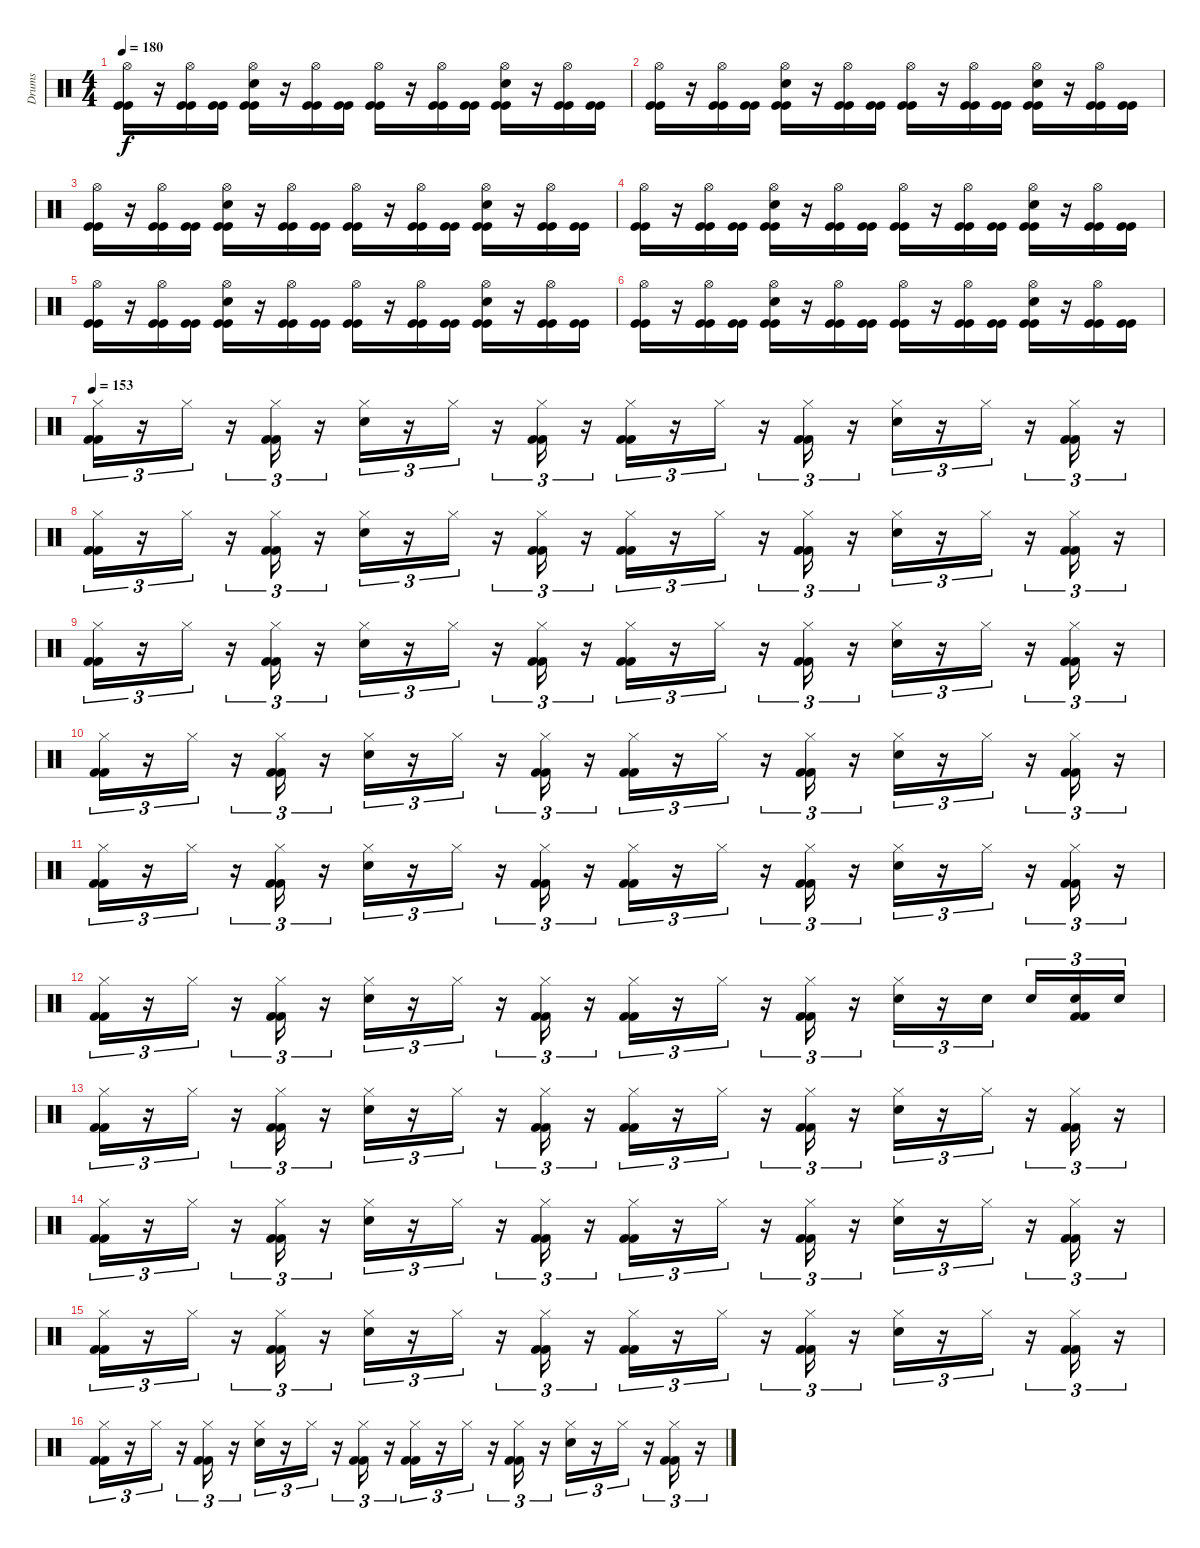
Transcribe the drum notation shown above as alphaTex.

\track ("Drums" "Drums") {instrument percussion}
\staff {score}
\articulation defaults
\ts (4 4)
\tempo 180
\clef neutral
\ks c
("Hi-Hat (open)" "Kick (hit)" "Kick (hit)").16{dy f} r.16 ("Hi-Hat (open)" "Kick (hit)" "Kick (hit)").16 ("Kick (hit)" "Kick (hit)").16 ("Snare (hit) 2" "Hi-Hat (open)" "Kick (hit)" "Kick (hit)").16 r.16 ("Hi-Hat (open)" "Kick (hit)" "Kick (hit)").16 ("Kick (hit)" "Kick (hit)").16 ("Hi-Hat (open)" "Kick (hit)" "Kick (hit)").16 r.16 ("Hi-Hat (open)" "Kick (hit)" "Kick (hit)").16 ("Kick (hit)" "Kick (hit)").16 ("Snare (hit) 2" "Hi-Hat (open)" "Kick (hit)" "Kick (hit)").16 r.16 ("Hi-Hat (open)" "Kick (hit)" "Kick (hit)").16 ("Kick (hit)" "Kick (hit)").16 |
("Hi-Hat (open)" "Kick (hit)" "Kick (hit)").16 r.16 ("Hi-Hat (open)" "Kick (hit)" "Kick (hit)").16 ("Kick (hit)" "Kick (hit)").16 ("Snare (hit) 2" "Hi-Hat (open)" "Kick (hit)" "Kick (hit)").16 r.16 ("Hi-Hat (open)" "Kick (hit)" "Kick (hit)").16 ("Kick (hit)" "Kick (hit)").16 ("Hi-Hat (open)" "Kick (hit)" "Kick (hit)").16 r.16 ("Hi-Hat (open)" "Kick (hit)" "Kick (hit)").16 ("Kick (hit)" "Kick (hit)").16 ("Snare (hit) 2" "Hi-Hat (open)" "Kick (hit)" "Kick (hit)").16 r.16 ("Hi-Hat (open)" "Kick (hit)" "Kick (hit)").16 ("Kick (hit)" "Kick (hit)").16 |
("Hi-Hat (open)" "Kick (hit)" "Kick (hit)").16 r.16 ("Hi-Hat (open)" "Kick (hit)" "Kick (hit)").16 ("Kick (hit)" "Kick (hit)").16 ("Snare (hit) 2" "Hi-Hat (open)" "Kick (hit)" "Kick (hit)").16 r.16 ("Hi-Hat (open)" "Kick (hit)" "Kick (hit)").16 ("Kick (hit)" "Kick (hit)").16 ("Hi-Hat (open)" "Kick (hit)" "Kick (hit)").16 r.16 ("Hi-Hat (open)" "Kick (hit)" "Kick (hit)").16 ("Kick (hit)" "Kick (hit)").16 ("Snare (hit) 2" "Hi-Hat (open)" "Kick (hit)" "Kick (hit)").16 r.16 ("Hi-Hat (open)" "Kick (hit)" "Kick (hit)").16 ("Kick (hit)" "Kick (hit)").16 |
("Hi-Hat (open)" "Kick (hit)" "Kick (hit)").16 r.16 ("Hi-Hat (open)" "Kick (hit)" "Kick (hit)").16 ("Kick (hit)" "Kick (hit)").16 ("Snare (hit) 2" "Hi-Hat (open)" "Kick (hit)" "Kick (hit)").16 r.16 ("Hi-Hat (open)" "Kick (hit)" "Kick (hit)").16 ("Kick (hit)" "Kick (hit)").16 ("Hi-Hat (open)" "Kick (hit)" "Kick (hit)").16 r.16 ("Hi-Hat (open)" "Kick (hit)" "Kick (hit)").16 ("Kick (hit)" "Kick (hit)").16 ("Snare (hit) 2" "Hi-Hat (open)" "Kick (hit)" "Kick (hit)").16 r.16 ("Hi-Hat (open)" "Kick (hit)" "Kick (hit)").16 ("Kick (hit)" "Kick (hit)").16 |
("Hi-Hat (open)" "Kick (hit)" "Kick (hit)").16 r.16 ("Hi-Hat (open)" "Kick (hit)" "Kick (hit)").16 ("Kick (hit)" "Kick (hit)").16 ("Snare (hit) 2" "Hi-Hat (open)" "Kick (hit)" "Kick (hit)").16 r.16 ("Hi-Hat (open)" "Kick (hit)" "Kick (hit)").16 ("Kick (hit)" "Kick (hit)").16 ("Hi-Hat (open)" "Kick (hit)" "Kick (hit)").16 r.16 ("Hi-Hat (open)" "Kick (hit)" "Kick (hit)").16 ("Kick (hit)" "Kick (hit)").16 ("Snare (hit) 2" "Hi-Hat (open)" "Kick (hit)" "Kick (hit)").16 r.16 ("Hi-Hat (open)" "Kick (hit)" "Kick (hit)").16 ("Kick (hit)" "Kick (hit)").16 |
("Hi-Hat (open)" "Kick (hit)" "Kick (hit)").16 r.16 ("Hi-Hat (open)" "Kick (hit)" "Kick (hit)").16 ("Kick (hit)" "Kick (hit)").16 ("Snare (hit) 2" "Hi-Hat (open)" "Kick (hit)" "Kick (hit)").16 r.16 ("Hi-Hat (open)" "Kick (hit)" "Kick (hit)").16 ("Kick (hit)" "Kick (hit)").16 ("Hi-Hat (open)" "Kick (hit)" "Kick (hit)").16 r.16 ("Hi-Hat (open)" "Kick (hit)" "Kick (hit)").16 ("Kick (hit)" "Kick (hit)").16 ("Snare (hit) 2" "Hi-Hat (open)" "Kick (hit)" "Kick (hit)").16 r.16 ("Hi-Hat (open)" "Kick (hit)" "Kick (hit)").16 ("Kick (hit)" "Kick (hit)").16 |
\tempo 153
("Hi-Hat (closed)" "Kick (hit) 2" "Kick (hit) 2").16{tu (3 2)} r.16{tu (3 2)} "Hi-Hat (closed)".16{tu (3 2)} r.16{tu (3 2)} ("Hi-Hat (closed)" "Kick (hit) 2" "Kick (hit) 2").16{tu (3 2)} r.16{tu (3 2)} ("Hi-Hat (closed)" "Snare (hit) 2").16{tu (3 2)} r.16{tu (3 2)} "Hi-Hat (closed)".16{tu (3 2)} r.16{tu (3 2)} ("Hi-Hat (closed)" "Kick (hit) 2" "Kick (hit) 2").16{tu (3 2)} r.16{tu (3 2)} ("Hi-Hat (closed)" "Kick (hit) 2" "Kick (hit) 2").16{tu (3 2)} r.16{tu (3 2)} "Hi-Hat (closed)".16{tu (3 2)} r.16{tu (3 2)} ("Hi-Hat (closed)" "Kick (hit) 2" "Kick (hit) 2").16{tu (3 2)} r.16{tu (3 2)} ("Hi-Hat (closed)" "Snare (hit) 2").16{tu (3 2)} r.16{tu (3 2)} "Hi-Hat (closed)".16{tu (3 2)} r.16{tu (3 2)} ("Hi-Hat (closed)" "Kick (hit) 2" "Kick (hit) 2").16{tu (3 2)} r.16{tu (3 2)} |
("Hi-Hat (closed)" "Kick (hit) 2" "Kick (hit) 2").16{tu (3 2)} r.16{tu (3 2)} "Hi-Hat (closed)".16{tu (3 2)} r.16{tu (3 2)} ("Hi-Hat (closed)" "Kick (hit) 2" "Kick (hit) 2").16{tu (3 2)} r.16{tu (3 2)} ("Hi-Hat (closed)" "Snare (hit) 2").16{tu (3 2)} r.16{tu (3 2)} "Hi-Hat (closed)".16{tu (3 2)} r.16{tu (3 2)} ("Hi-Hat (closed)" "Kick (hit) 2" "Kick (hit) 2").16{tu (3 2)} r.16{tu (3 2)} ("Hi-Hat (closed)" "Kick (hit) 2" "Kick (hit) 2").16{tu (3 2)} r.16{tu (3 2)} "Hi-Hat (closed)".16{tu (3 2)} r.16{tu (3 2)} ("Hi-Hat (closed)" "Kick (hit) 2" "Kick (hit) 2").16{tu (3 2)} r.16{tu (3 2)} ("Hi-Hat (closed)" "Snare (hit) 2").16{tu (3 2)} r.16{tu (3 2)} "Hi-Hat (closed)".16{tu (3 2)} r.16{tu (3 2)} ("Hi-Hat (closed)" "Kick (hit) 2" "Kick (hit) 2").16{tu (3 2)} r.16{tu (3 2)} |
("Hi-Hat (closed)" "Kick (hit) 2" "Kick (hit) 2").16{tu (3 2)} r.16{tu (3 2)} "Hi-Hat (closed)".16{tu (3 2)} r.16{tu (3 2)} ("Hi-Hat (closed)" "Kick (hit) 2" "Kick (hit) 2").16{tu (3 2)} r.16{tu (3 2)} ("Hi-Hat (closed)" "Snare (hit) 2").16{tu (3 2)} r.16{tu (3 2)} "Hi-Hat (closed)".16{tu (3 2)} r.16{tu (3 2)} ("Hi-Hat (closed)" "Kick (hit) 2" "Kick (hit) 2").16{tu (3 2)} r.16{tu (3 2)} ("Hi-Hat (closed)" "Kick (hit) 2" "Kick (hit) 2").16{tu (3 2)} r.16{tu (3 2)} "Hi-Hat (closed)".16{tu (3 2)} r.16{tu (3 2)} ("Hi-Hat (closed)" "Kick (hit) 2" "Kick (hit) 2").16{tu (3 2)} r.16{tu (3 2)} ("Hi-Hat (closed)" "Snare (hit) 2").16{tu (3 2)} r.16{tu (3 2)} "Hi-Hat (closed)".16{tu (3 2)} r.16{tu (3 2)} ("Hi-Hat (closed)" "Kick (hit) 2" "Kick (hit) 2").16{tu (3 2)} r.16{tu (3 2)} |
("Hi-Hat (closed)" "Kick (hit) 2" "Kick (hit) 2").16{tu (3 2)} r.16{tu (3 2)} "Hi-Hat (closed)".16{tu (3 2)} r.16{tu (3 2)} ("Hi-Hat (closed)" "Kick (hit) 2" "Kick (hit) 2").16{tu (3 2)} r.16{tu (3 2)} ("Hi-Hat (closed)" "Snare (hit) 2").16{tu (3 2)} r.16{tu (3 2)} "Hi-Hat (closed)".16{tu (3 2)} r.16{tu (3 2)} ("Hi-Hat (closed)" "Kick (hit) 2" "Kick (hit) 2").16{tu (3 2)} r.16{tu (3 2)} ("Hi-Hat (closed)" "Kick (hit) 2" "Kick (hit) 2").16{tu (3 2)} r.16{tu (3 2)} "Hi-Hat (closed)".16{tu (3 2)} r.16{tu (3 2)} ("Hi-Hat (closed)" "Kick (hit) 2" "Kick (hit) 2").16{tu (3 2)} r.16{tu (3 2)} ("Hi-Hat (closed)" "Snare (hit) 2").16{tu (3 2)} r.16{tu (3 2)} "Hi-Hat (closed)".16{tu (3 2)} r.16{tu (3 2)} ("Hi-Hat (closed)" "Kick (hit) 2" "Kick (hit) 2").16{tu (3 2)} r.16{tu (3 2)} |
("Hi-Hat (closed)" "Kick (hit) 2" "Kick (hit) 2").16{tu (3 2)} r.16{tu (3 2)} "Hi-Hat (closed)".16{tu (3 2)} r.16{tu (3 2)} ("Hi-Hat (closed)" "Kick (hit) 2" "Kick (hit) 2").16{tu (3 2)} r.16{tu (3 2)} ("Hi-Hat (closed)" "Snare (hit) 2").16{tu (3 2)} r.16{tu (3 2)} "Hi-Hat (closed)".16{tu (3 2)} r.16{tu (3 2)} ("Hi-Hat (closed)" "Kick (hit) 2" "Kick (hit) 2").16{tu (3 2)} r.16{tu (3 2)} ("Hi-Hat (closed)" "Kick (hit) 2" "Kick (hit) 2").16{tu (3 2)} r.16{tu (3 2)} "Hi-Hat (closed)".16{tu (3 2)} r.16{tu (3 2)} ("Hi-Hat (closed)" "Kick (hit) 2" "Kick (hit) 2").16{tu (3 2)} r.16{tu (3 2)} ("Hi-Hat (closed)" "Snare (hit) 2").16{tu (3 2)} r.16{tu (3 2)} "Hi-Hat (closed)".16{tu (3 2)} r.16{tu (3 2)} ("Hi-Hat (closed)" "Kick (hit) 2" "Kick (hit) 2").16{tu (3 2)} r.16{tu (3 2)} |
("Hi-Hat (closed)" "Kick (hit) 2" "Kick (hit) 2").16{tu (3 2)} r.16{tu (3 2)} "Hi-Hat (closed)".16{tu (3 2)} r.16{tu (3 2)} ("Hi-Hat (closed)" "Kick (hit) 2" "Kick (hit) 2").16{tu (3 2)} r.16{tu (3 2)} ("Hi-Hat (closed)" "Snare (hit) 2").16{tu (3 2)} r.16{tu (3 2)} "Hi-Hat (closed)".16{tu (3 2)} r.16{tu (3 2)} ("Hi-Hat (closed)" "Kick (hit) 2" "Kick (hit) 2").16{tu (3 2)} r.16{tu (3 2)} ("Hi-Hat (closed)" "Kick (hit) 2" "Kick (hit) 2").16{tu (3 2)} r.16{tu (3 2)} "Hi-Hat (closed)".16{tu (3 2)} r.16{tu (3 2)} ("Hi-Hat (closed)" "Kick (hit) 2" "Kick (hit) 2").16{tu (3 2)} r.16{tu (3 2)} ("Hi-Hat (closed)" "Snare (hit) 2").16{tu (3 2)} r.16{tu (3 2)} "Snare (hit) 2".16{tu (3 2)} "Snare (hit) 2".16{tu (3 2)} ("Snare (hit) 2" "Kick (hit) 2" "Kick (hit) 2").16{tu (3 2)} "Snare (hit) 2".16{tu (3 2)} |
("Hi-Hat (closed)" "Kick (hit) 2" "Kick (hit) 2").16{tu (3 2)} r.16{tu (3 2)} "Hi-Hat (closed)".16{tu (3 2)} r.16{tu (3 2)} ("Hi-Hat (closed)" "Kick (hit) 2" "Kick (hit) 2").16{tu (3 2)} r.16{tu (3 2)} ("Hi-Hat (closed)" "Snare (hit) 2").16{tu (3 2)} r.16{tu (3 2)} "Hi-Hat (closed)".16{tu (3 2)} r.16{tu (3 2)} ("Hi-Hat (closed)" "Kick (hit) 2" "Kick (hit) 2").16{tu (3 2)} r.16{tu (3 2)} ("Hi-Hat (closed)" "Kick (hit) 2" "Kick (hit) 2").16{tu (3 2)} r.16{tu (3 2)} "Hi-Hat (closed)".16{tu (3 2)} r.16{tu (3 2)} ("Hi-Hat (closed)" "Kick (hit) 2" "Kick (hit) 2").16{tu (3 2)} r.16{tu (3 2)} ("Hi-Hat (closed)" "Snare (hit) 2").16{tu (3 2)} r.16{tu (3 2)} "Hi-Hat (closed)".16{tu (3 2)} r.16{tu (3 2)} ("Hi-Hat (closed)" "Kick (hit) 2" "Kick (hit) 2").16{tu (3 2)} r.16{tu (3 2)} |
("Hi-Hat (closed)" "Kick (hit) 2" "Kick (hit) 2").16{tu (3 2)} r.16{tu (3 2)} "Hi-Hat (closed)".16{tu (3 2)} r.16{tu (3 2)} ("Hi-Hat (closed)" "Kick (hit) 2" "Kick (hit) 2").16{tu (3 2)} r.16{tu (3 2)} ("Hi-Hat (closed)" "Snare (hit) 2").16{tu (3 2)} r.16{tu (3 2)} "Hi-Hat (closed)".16{tu (3 2)} r.16{tu (3 2)} ("Hi-Hat (closed)" "Kick (hit) 2" "Kick (hit) 2").16{tu (3 2)} r.16{tu (3 2)} ("Hi-Hat (closed)" "Kick (hit) 2" "Kick (hit) 2").16{tu (3 2)} r.16{tu (3 2)} "Hi-Hat (closed)".16{tu (3 2)} r.16{tu (3 2)} ("Hi-Hat (closed)" "Kick (hit) 2" "Kick (hit) 2").16{tu (3 2)} r.16{tu (3 2)} ("Hi-Hat (closed)" "Snare (hit) 2").16{tu (3 2)} r.16{tu (3 2)} "Hi-Hat (closed)".16{tu (3 2)} r.16{tu (3 2)} ("Hi-Hat (closed)" "Kick (hit) 2" "Kick (hit) 2").16{tu (3 2)} r.16{tu (3 2)} |
("Hi-Hat (closed)" "Kick (hit) 2" "Kick (hit) 2").16{tu (3 2)} r.16{tu (3 2)} "Hi-Hat (closed)".16{tu (3 2)} r.16{tu (3 2)} ("Hi-Hat (closed)" "Kick (hit) 2" "Kick (hit) 2").16{tu (3 2)} r.16{tu (3 2)} ("Hi-Hat (closed)" "Snare (hit) 2").16{tu (3 2)} r.16{tu (3 2)} "Hi-Hat (closed)".16{tu (3 2)} r.16{tu (3 2)} ("Hi-Hat (closed)" "Kick (hit) 2" "Kick (hit) 2").16{tu (3 2)} r.16{tu (3 2)} ("Hi-Hat (closed)" "Kick (hit) 2" "Kick (hit) 2").16{tu (3 2)} r.16{tu (3 2)} "Hi-Hat (closed)".16{tu (3 2)} r.16{tu (3 2)} ("Hi-Hat (closed)" "Kick (hit) 2" "Kick (hit) 2").16{tu (3 2)} r.16{tu (3 2)} ("Hi-Hat (closed)" "Snare (hit) 2").16{tu (3 2)} r.16{tu (3 2)} "Hi-Hat (closed)".16{tu (3 2)} r.16{tu (3 2)} ("Hi-Hat (closed)" "Kick (hit) 2" "Kick (hit) 2").16{tu (3 2)} r.16{tu (3 2)} |
("Hi-Hat (closed)" "Kick (hit) 2" "Kick (hit) 2").16{tu (3 2)} r.16{tu (3 2)} "Hi-Hat (closed)".16{tu (3 2)} r.16{tu (3 2)} ("Hi-Hat (closed)" "Kick (hit) 2" "Kick (hit) 2").16{tu (3 2)} r.16{tu (3 2)} ("Hi-Hat (closed)" "Snare (hit) 2").16{tu (3 2)} r.16{tu (3 2)} "Hi-Hat (closed)".16{tu (3 2)} r.16{tu (3 2)} ("Hi-Hat (closed)" "Kick (hit) 2" "Kick (hit) 2").16{tu (3 2)} r.16{tu (3 2)} ("Hi-Hat (closed)" "Kick (hit) 2" "Kick (hit) 2").16{tu (3 2)} r.16{tu (3 2)} "Hi-Hat (closed)".16{tu (3 2)} r.16{tu (3 2)} ("Hi-Hat (closed)" "Kick (hit) 2" "Kick (hit) 2").16{tu (3 2)} r.16{tu (3 2)} ("Hi-Hat (closed)" "Snare (hit) 2").16{tu (3 2)} r.16{tu (3 2)} "Hi-Hat (closed)".16{tu (3 2)} r.16{tu (3 2)} ("Hi-Hat (closed)" "Kick (hit) 2" "Kick (hit) 2").16{tu (3 2)} r.16{tu (3 2)}
